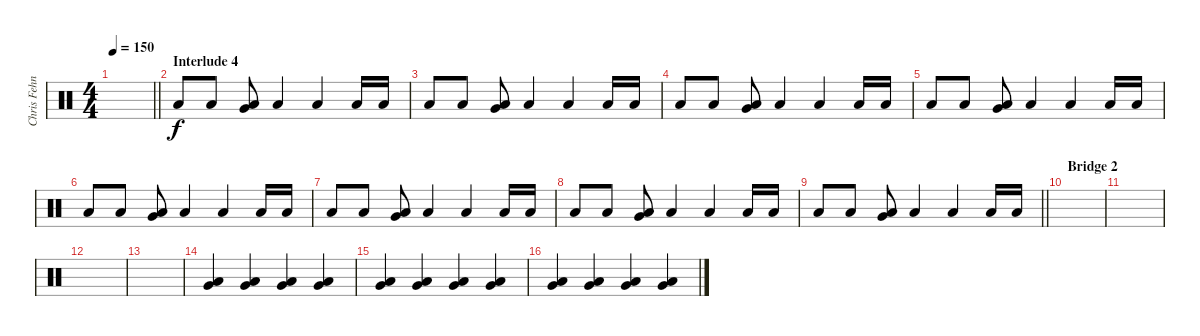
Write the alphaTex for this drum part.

\track ("Chris Fehn" "Chris Fehn") {instrument percussion}
\staff {score}
\articulation defaults
\ts (4 4)
\tempo 150
\clef neutral
\barLineRight lightlight
\ks c
|
\section ("" "Interlude 4")
"Low Floor Tom (hit)".8 "Low Floor Tom (hit)".8 ("Very Low Tom (hit)" "Low Floor Tom (hit)").8 "Low Floor Tom (hit)".4 "Low Floor Tom (hit)".4 "Low Floor Tom (hit)".16 "Low Floor Tom (hit)".16 |
"Low Floor Tom (hit)".8 "Low Floor Tom (hit)".8 ("Very Low Tom (hit)" "Low Floor Tom (hit)").8 "Low Floor Tom (hit)".4 "Low Floor Tom (hit)".4 "Low Floor Tom (hit)".16 "Low Floor Tom (hit)".16 |
"Low Floor Tom (hit)".8 "Low Floor Tom (hit)".8 ("Very Low Tom (hit)" "Low Floor Tom (hit)").8 "Low Floor Tom (hit)".4 "Low Floor Tom (hit)".4 "Low Floor Tom (hit)".16 "Low Floor Tom (hit)".16 |
"Low Floor Tom (hit)".8 "Low Floor Tom (hit)".8 ("Very Low Tom (hit)" "Low Floor Tom (hit)").8 "Low Floor Tom (hit)".4 "Low Floor Tom (hit)".4 "Low Floor Tom (hit)".16 "Low Floor Tom (hit)".16 |
"Low Floor Tom (hit)".8 "Low Floor Tom (hit)".8 ("Very Low Tom (hit)" "Low Floor Tom (hit)").8 "Low Floor Tom (hit)".4 "Low Floor Tom (hit)".4 "Low Floor Tom (hit)".16 "Low Floor Tom (hit)".16 |
"Low Floor Tom (hit)".8 "Low Floor Tom (hit)".8 ("Very Low Tom (hit)" "Low Floor Tom (hit)").8 "Low Floor Tom (hit)".4 "Low Floor Tom (hit)".4 "Low Floor Tom (hit)".16 "Low Floor Tom (hit)".16 |
"Low Floor Tom (hit)".8 "Low Floor Tom (hit)".8 ("Very Low Tom (hit)" "Low Floor Tom (hit)").8 "Low Floor Tom (hit)".4 "Low Floor Tom (hit)".4 "Low Floor Tom (hit)".16 "Low Floor Tom (hit)".16 |
\barLineRight lightlight "Low Floor Tom (hit)".8 "Low Floor Tom (hit)".8
("Very Low Tom (hit)" "Low Floor Tom (hit)").8 "Low Floor Tom (hit)".4 "Low Floor Tom (hit)".4 "Low Floor Tom (hit)".16 "Low Floor Tom (hit)".16 |
\section ("" "Bridge 2")
|
|
|
|
("Very Low Tom (hit)" "Low Floor Tom (hit)").4 ("Very Low Tom (hit)" "Low Floor Tom (hit)").4 ("Very Low Tom (hit)" "Low Floor Tom (hit)").4 ("Very Low Tom (hit)" "Low Floor Tom (hit)").4 |
("Very Low Tom (hit)" "Low Floor Tom (hit)").4 ("Very Low Tom (hit)" "Low Floor Tom (hit)").4 ("Very Low Tom (hit)" "Low Floor Tom (hit)").4 ("Very Low Tom (hit)" "Low Floor Tom (hit)").4 |
("Very Low Tom (hit)" "Low Floor Tom (hit)").4 ("Very Low Tom (hit)" "Low Floor Tom (hit)").4 ("Very Low Tom (hit)" "Low Floor Tom (hit)").4 ("Very Low Tom (hit)" "Low Floor Tom (hit)").4
